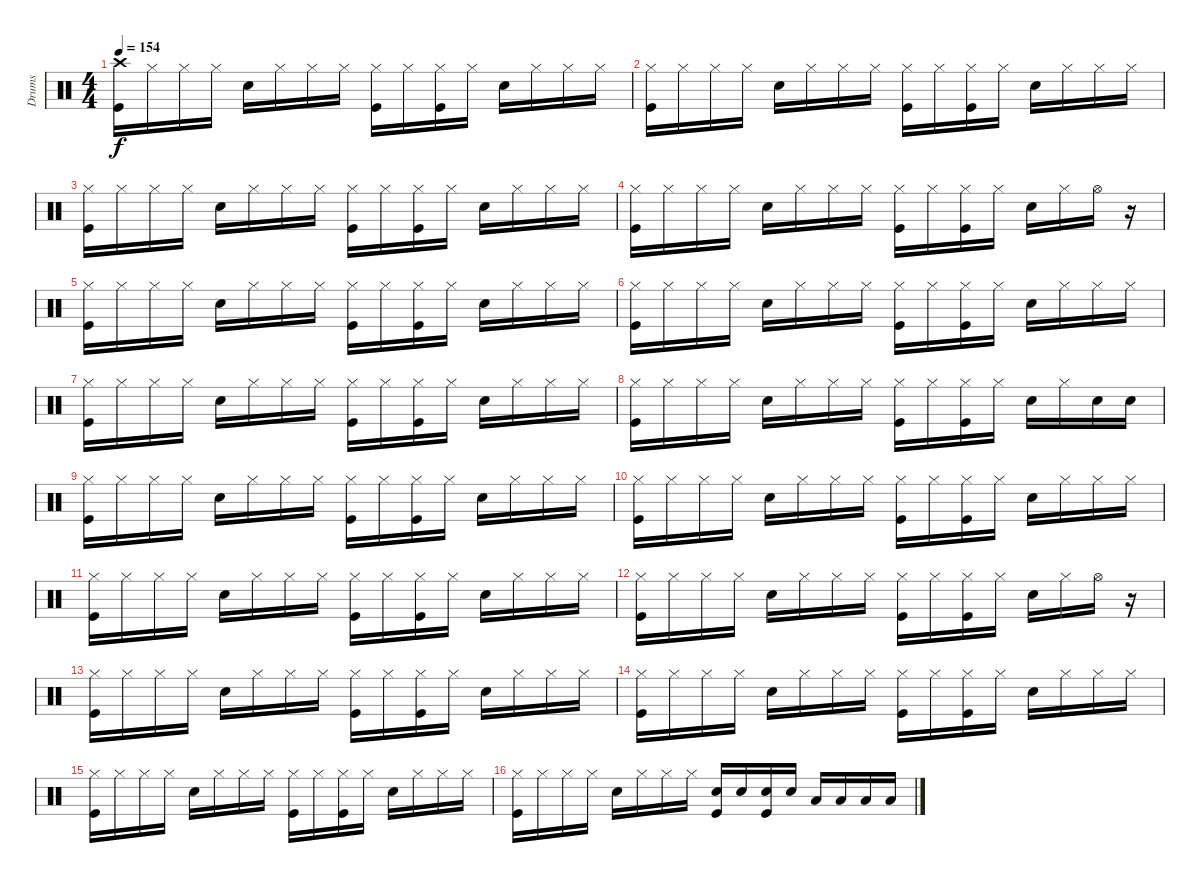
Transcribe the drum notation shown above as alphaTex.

\track ("Drums" "Drums") {instrument percussion}
\staff {score}
\articulation defaults
\ts (4 4)
\tempo 154
\clef neutral
\ks c
("Kick (hit)" "Crash high (hit)").16{dy f} "Hi-Hat (closed)".16 "Hi-Hat (closed)".16 "Hi-Hat (closed)".16 "Snare (hit) 2".16 "Hi-Hat (closed)".16 "Hi-Hat (closed)".16 "Hi-Hat (closed)".16 ("Hi-Hat (closed)" "Kick (hit)").16 "Hi-Hat (closed)".16 ("Kick (hit)" "Hi-Hat (closed)").16 "Hi-Hat (closed)".16 "Snare (hit) 2".16 "Hi-Hat (closed)".16 "Hi-Hat (closed)".16 "Hi-Hat (closed)".16 |
("Hi-Hat (closed)" "Kick (hit)").16 "Hi-Hat (closed)".16 "Hi-Hat (closed)".16 "Hi-Hat (closed)".16 "Snare (hit) 2".16 "Hi-Hat (closed)".16 "Hi-Hat (closed)".16 "Hi-Hat (closed)".16 ("Hi-Hat (closed)" "Kick (hit)").16 "Hi-Hat (closed)".16 ("Kick (hit)" "Hi-Hat (closed)").16 "Hi-Hat (closed)".16 "Snare (hit) 2".16 "Hi-Hat (closed)".16 "Hi-Hat (closed)".16 "Hi-Hat (closed)".16 |
("Hi-Hat (closed)" "Kick (hit)").16 "Hi-Hat (closed)".16 "Hi-Hat (closed)".16 "Hi-Hat (closed)".16 "Snare (hit) 2".16 "Hi-Hat (closed)".16 "Hi-Hat (closed)".16 "Hi-Hat (closed)".16 ("Hi-Hat (closed)" "Kick (hit)").16 "Hi-Hat (closed)".16 ("Hi-Hat (closed)" "Kick (hit)").16 "Hi-Hat (closed)".16 "Snare (hit) 2".16 "Hi-Hat (closed)".16 "Hi-Hat (closed)".16 "Hi-Hat (closed)".16 |
("Hi-Hat (closed)" "Kick (hit)").16 "Hi-Hat (closed)".16 "Hi-Hat (closed)".16 "Hi-Hat (closed)".16 "Snare (hit) 2".16 "Hi-Hat (closed)".16 "Hi-Hat (closed)".16 "Hi-Hat (closed)".16 ("Hi-Hat (closed)" "Kick (hit)").16 "Hi-Hat (closed)".16 ("Hi-Hat (closed)" "Kick (hit)").16 "Hi-Hat (closed)".16 "Snare (hit) 2".16 "Hi-Hat (closed)".16 "Hi-Hat (open)".16 r.16 |
("Hi-Hat (closed)" "Kick (hit)").16 "Hi-Hat (closed)".16 "Hi-Hat (closed)".16 "Hi-Hat (closed)".16 "Snare (hit) 2".16 "Hi-Hat (closed)".16 "Hi-Hat (closed)".16 "Hi-Hat (closed)".16 ("Hi-Hat (closed)" "Kick (hit)").16 "Hi-Hat (closed)".16 ("Hi-Hat (closed)" "Kick (hit)").16 "Hi-Hat (closed)".16 "Snare (hit) 2".16 "Hi-Hat (closed)".16 "Hi-Hat (closed)".16 "Hi-Hat (closed)".16 |
("Hi-Hat (closed)" "Kick (hit)").16 "Hi-Hat (closed)".16 "Hi-Hat (closed)".16 "Hi-Hat (closed)".16 "Snare (hit) 2".16 "Hi-Hat (closed)".16 "Hi-Hat (closed)".16 "Hi-Hat (closed)".16 ("Hi-Hat (closed)" "Kick (hit)").16 "Hi-Hat (closed)".16 ("Hi-Hat (closed)" "Kick (hit)").16 "Hi-Hat (closed)".16 "Snare (hit) 2".16 "Hi-Hat (closed)".16 "Hi-Hat (closed)".16 "Hi-Hat (closed)".16 |
("Hi-Hat (closed)" "Kick (hit)").16 "Hi-Hat (closed)".16 "Hi-Hat (closed)".16 "Hi-Hat (closed)".16 "Snare (hit) 2".16 "Hi-Hat (closed)".16 "Hi-Hat (closed)".16 "Hi-Hat (closed)".16 ("Hi-Hat (closed)" "Kick (hit)").16 "Hi-Hat (closed)".16 ("Kick (hit)" "Hi-Hat (closed)").16 "Hi-Hat (closed)".16 "Snare (hit) 2".16 "Hi-Hat (closed)".16 "Hi-Hat (closed)".16 "Hi-Hat (closed)".16 |
("Hi-Hat (closed)" "Kick (hit)").16 "Hi-Hat (closed)".16 "Hi-Hat (closed)".16 "Hi-Hat (closed)".16 "Snare (hit) 2".16 "Hi-Hat (closed)".16 "Hi-Hat (closed)".16 "Hi-Hat (closed)".16 ("Hi-Hat (closed)" "Kick (hit)").16 "Hi-Hat (closed)".16 ("Kick (hit)" "Hi-Hat (closed)").16 "Hi-Hat (closed)".16 "Snare (hit) 2".16 "Hi-Hat (closed)".16 "Snare (hit) 2".16 "Snare (hit) 2".16 |
("Hi-Hat (closed)" "Kick (hit)").16 "Hi-Hat (closed)".16 "Hi-Hat (closed)".16 "Hi-Hat (closed)".16 "Snare (hit) 2".16 "Hi-Hat (closed)".16 "Hi-Hat (closed)".16 "Hi-Hat (closed)".16 ("Hi-Hat (closed)" "Kick (hit)").16 "Hi-Hat (closed)".16 ("Kick (hit)" "Hi-Hat (closed)").16 "Hi-Hat (closed)".16 "Snare (hit) 2".16 "Hi-Hat (closed)".16 "Hi-Hat (closed)".16 "Hi-Hat (closed)".16 |
("Hi-Hat (closed)" "Kick (hit)").16 "Hi-Hat (closed)".16 "Hi-Hat (closed)".16 "Hi-Hat (closed)".16 "Snare (hit) 2".16 "Hi-Hat (closed)".16 "Hi-Hat (closed)".16 "Hi-Hat (closed)".16 ("Hi-Hat (closed)" "Kick (hit)").16 "Hi-Hat (closed)".16 ("Kick (hit)" "Hi-Hat (closed)").16 "Hi-Hat (closed)".16 "Snare (hit) 2".16 "Hi-Hat (closed)".16 "Hi-Hat (closed)".16 "Hi-Hat (closed)".16 |
("Hi-Hat (closed)" "Kick (hit)").16 "Hi-Hat (closed)".16 "Hi-Hat (closed)".16 "Hi-Hat (closed)".16 "Snare (hit) 2".16 "Hi-Hat (closed)".16 "Hi-Hat (closed)".16 "Hi-Hat (closed)".16 ("Hi-Hat (closed)" "Kick (hit)").16 "Hi-Hat (closed)".16 ("Hi-Hat (closed)" "Kick (hit)").16 "Hi-Hat (closed)".16 "Snare (hit) 2".16 "Hi-Hat (closed)".16 "Hi-Hat (closed)".16 "Hi-Hat (closed)".16 |
("Hi-Hat (closed)" "Kick (hit)").16 "Hi-Hat (closed)".16 "Hi-Hat (closed)".16 "Hi-Hat (closed)".16 "Snare (hit) 2".16 "Hi-Hat (closed)".16 "Hi-Hat (closed)".16 "Hi-Hat (closed)".16 ("Hi-Hat (closed)" "Kick (hit)").16 "Hi-Hat (closed)".16 ("Hi-Hat (closed)" "Kick (hit)").16 "Hi-Hat (closed)".16 "Snare (hit) 2".16 "Hi-Hat (closed)".16 "Hi-Hat (open)".16 r.16 |
("Hi-Hat (closed)" "Kick (hit)").16 "Hi-Hat (closed)".16 "Hi-Hat (closed)".16 "Hi-Hat (closed)".16 "Snare (hit) 2".16 "Hi-Hat (closed)".16 "Hi-Hat (closed)".16 "Hi-Hat (closed)".16 ("Hi-Hat (closed)" "Kick (hit)").16 "Hi-Hat (closed)".16 ("Hi-Hat (closed)" "Kick (hit)").16 "Hi-Hat (closed)".16 "Snare (hit) 2".16 "Hi-Hat (closed)".16 "Hi-Hat (closed)".16 "Hi-Hat (closed)".16 |
("Hi-Hat (closed)" "Kick (hit)").16 "Hi-Hat (closed)".16 "Hi-Hat (closed)".16 "Hi-Hat (closed)".16 "Snare (hit) 2".16 "Hi-Hat (closed)".16 "Hi-Hat (closed)".16 "Hi-Hat (closed)".16 ("Hi-Hat (closed)" "Kick (hit)").16 "Hi-Hat (closed)".16 ("Hi-Hat (closed)" "Kick (hit)").16 "Hi-Hat (closed)".16 "Snare (hit) 2".16 "Hi-Hat (closed)".16 "Hi-Hat (closed)".16 "Hi-Hat (closed)".16 |
("Hi-Hat (closed)" "Kick (hit)").16 "Hi-Hat (closed)".16 "Hi-Hat (closed)".16 "Hi-Hat (closed)".16 "Snare (hit) 2".16 "Hi-Hat (closed)".16 "Hi-Hat (closed)".16 "Hi-Hat (closed)".16 ("Hi-Hat (closed)" "Kick (hit)").16 "Hi-Hat (closed)".16 ("Hi-Hat (closed)" "Kick (hit)").16 "Hi-Hat (closed)".16 "Snare (hit) 2".16 "Hi-Hat (closed)".16 "Hi-Hat (closed)".16 "Hi-Hat (closed)".16 |
("Hi-Hat (closed)" "Kick (hit)").16 "Hi-Hat (closed)".16 "Hi-Hat (closed)".16 "Hi-Hat (closed)".16 "Snare (hit) 2".16 "Hi-Hat (closed)".16 "Hi-Hat (closed)".16 "Hi-Hat (closed)".16 ("Snare (hit) 2" "Kick (hit)").16 "Snare (hit) 2".16 ("Snare (hit) 2" "Kick (hit)").16 "Snare (hit) 2".16 "Low Tom (hit)".16 "Low Tom (hit)".16 "Low Tom (hit)".16 "Low Tom (hit)".16
